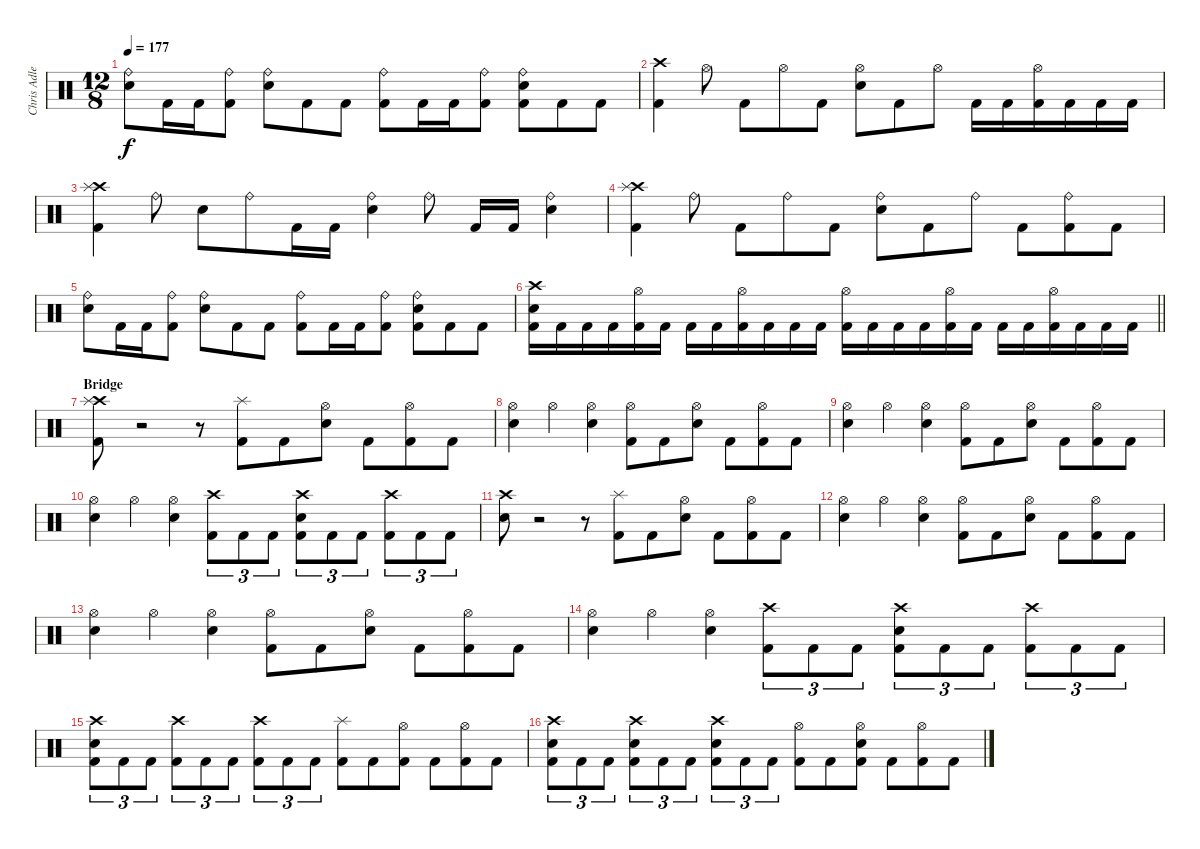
\track ("Chris Adler" "Chris Adle") {instrument percussion}
\staff {score}
\articulation defaults
\ts (12 8)
\tempo 177
\clef neutral
\ks c
("Ride (bell)" "Snare (hit) 2").8{dy f} "Kick (hit) 2".16 "Kick (hit) 2".16 ("Ride (bell)" "Kick (hit) 2").8 ("Ride (bell)" "Snare (hit) 2").8 "Kick (hit) 2".8 "Kick (hit) 2".8 ("Ride (bell)" "Kick (hit) 2").8 "Kick (hit) 2".16 "Kick (hit) 2".16 ("Ride (bell)" "Kick (hit) 2").8 ("Ride (bell)" "Snare (hit) 2" "Kick (hit) 2").8 "Kick (hit) 2".8 "Kick (hit) 2".8 |
("Crash high (hit)" "Kick (hit) 2").4 "Hi-Hat (open)".8 "Kick (hit) 2".8 "Hi-Hat (open)".8 "Kick (hit) 2".8 ("Hi-Hat (open)" "Snare (hit) 2").8 "Kick (hit) 2".8 "Hi-Hat (open)".8 "Kick (hit) 2".16 "Kick (hit) 2".16 ("Hi-Hat (open)" "Kick (hit) 2").16 "Kick (hit) 2".16 "Kick (hit) 2".16 "Kick (hit) 2".16 |
("Crash high (hit)" "Splash (hit)" "Kick (hit) 2").4 "Ride (bell)".8 "Snare (hit) 2".8 "Ride (bell)".8 "Kick (hit) 2".16 "Kick (hit) 2".16 ("Ride (bell)" "Snare (hit) 2").4 "Ride (bell)".8 "Kick (hit) 2".16 "Kick (hit) 2".16 ("Ride (bell)" "Snare (hit) 2").4 |
("Crash high (hit)" "Splash (hit)" "Kick (hit) 2").4 "Ride (bell)".8 "Kick (hit) 2".8 "Ride (bell)".8 "Kick (hit) 2".8 ("Ride (bell)" "Snare (hit) 2").8 "Kick (hit) 2".8 "Ride (bell)".8 "Kick (hit) 2".8 ("Ride (bell)" "Kick (hit) 2").8 "Kick (hit) 2".8 |
("Ride (bell)" "Snare (hit) 2").8 "Kick (hit) 2".16 "Kick (hit) 2".16 ("Ride (bell)" "Kick (hit) 2").8 ("Ride (bell)" "Snare (hit) 2").8 "Kick (hit) 2".8 "Kick (hit) 2".8 ("Ride (bell)" "Kick (hit) 2").8 "Kick (hit) 2".16 "Kick (hit) 2".16 ("Ride (bell)" "Kick (hit) 2").8 ("Ride (bell)" "Snare (hit) 2" "Kick (hit) 2").8 "Kick (hit) 2".8 "Kick (hit) 2".8 |
\barLineRight lightlight
("Crash high (hit)" "Snare (hit) 2" "Kick (hit) 2").16 "Kick (hit) 2".16 "Kick (hit) 2".16 "Kick (hit) 2".16 ("Hi-Hat (open)" "Kick (hit) 2").16 "Kick (hit) 2".16 "Kick (hit) 2".16 "Kick (hit) 2".16 ("Hi-Hat (open)" "Kick (hit) 2").16 "Kick (hit) 2".16 "Kick (hit) 2".16 "Kick (hit) 2".16 ("Hi-Hat (open)" "Kick (hit) 2").16 "Kick (hit) 2".16 "Kick (hit) 2".16 "Kick (hit) 2".16 ("Hi-Hat (open)" "Kick (hit) 2").16 "Kick (hit) 2".16 "Kick (hit) 2".16 "Kick (hit) 2".16 ("Hi-Hat (open)" "Kick (hit) 2").16 "Kick (hit) 2".16 "Kick (hit) 2".16 "Kick (hit) 2".16 |
\section ("" "Bridge")
("Kick (hit) 2" "Crash high (hit)" "Splash (hit)").8 r.2 r.8 ("Splash (hit)" "Kick (hit) 2").8 "Kick (hit) 2".8 ("Hi-Hat (open)" "Snare (hit) 2").8 "Kick (hit) 2".8 ("Hi-Hat (open)" "Kick (hit) 2").8 "Kick (hit) 2".8 |
("Hi-Hat (open)" "Snare (hit) 2").4 "Hi-Hat (open)".4 ("Hi-Hat (open)" "Snare (hit) 2").4 ("Hi-Hat (open)" "Kick (hit) 2").8 "Kick (hit) 2".8 ("Hi-Hat (open)" "Snare (hit) 2").8 "Kick (hit) 2".8 ("Hi-Hat (open)" "Kick (hit) 2").8 "Kick (hit) 2".8 |
("Hi-Hat (open)" "Snare (hit) 2").4 "Hi-Hat (open)".4 ("Hi-Hat (open)" "Snare (hit) 2").4 ("Hi-Hat (open)" "Kick (hit) 2").8 "Kick (hit) 2".8 ("Hi-Hat (open)" "Snare (hit) 2").8 "Kick (hit) 2".8 ("Hi-Hat (open)" "Kick (hit) 2").8 "Kick (hit) 2".8 |
("Hi-Hat (open)" "Snare (hit) 2").4 "Hi-Hat (open)".4 ("Hi-Hat (open)" "Snare (hit) 2").4 ("Crash high (hit)" "Kick (hit) 2").8{tu (3 2)} "Kick (hit) 2".8{tu (3 2)} "Kick (hit) 2".8{tu (3 2)} ("Snare (hit) 2" "Crash high (hit)" "Kick (hit) 2").8{tu (3 2)} "Kick (hit) 2".8{tu (3 2)} "Kick (hit) 2".8{tu (3 2)} ("Crash high (hit)" "Kick (hit) 2").8{tu (3 2)} "Kick (hit) 2".8{tu (3 2)} "Kick (hit) 2".8{tu (3 2)} |
("Crash high (hit)" "Snare (hit) 2").8 r.2 r.8 ("Splash (hit)" "Kick (hit) 2").8 "Kick (hit) 2".8 ("Hi-Hat (open)" "Snare (hit) 2").8 "Kick (hit) 2".8 ("Hi-Hat (open)" "Kick (hit) 2").8 "Kick (hit) 2".8 |
("Hi-Hat (open)" "Snare (hit) 2").4 "Hi-Hat (open)".4 ("Hi-Hat (open)" "Snare (hit) 2").4 ("Hi-Hat (open)" "Kick (hit) 2").8 "Kick (hit) 2".8 ("Hi-Hat (open)" "Snare (hit) 2").8 "Kick (hit) 2".8 ("Hi-Hat (open)" "Kick (hit) 2").8 "Kick (hit) 2".8 |
("Hi-Hat (open)" "Snare (hit) 2").4 "Hi-Hat (open)".4 ("Hi-Hat (open)" "Snare (hit) 2").4 ("Hi-Hat (open)" "Kick (hit) 2").8 "Kick (hit) 2".8 ("Hi-Hat (open)" "Snare (hit) 2").8 "Kick (hit) 2".8 ("Hi-Hat (open)" "Kick (hit) 2").8 "Kick (hit) 2".8 |
("Hi-Hat (open)" "Snare (hit) 2").4 "Hi-Hat (open)".4 ("Hi-Hat (open)" "Snare (hit) 2").4 ("Crash high (hit)" "Kick (hit) 2").8{tu (3 2)} "Kick (hit) 2".8{tu (3 2)} "Kick (hit) 2".8{tu (3 2)} ("Snare (hit) 2" "Crash high (hit)" "Kick (hit) 2").8{tu (3 2)} "Kick (hit) 2".8{tu (3 2)} "Kick (hit) 2".8{tu (3 2)} ("Crash high (hit)" "Kick (hit) 2").8{tu (3 2)} "Kick (hit) 2".8{tu (3 2)} "Kick (hit) 2".8{tu (3 2)} |
("Snare (hit) 2" "Crash high (hit)" "Kick (hit) 2").8{tu (3 2)} "Kick (hit) 2".8{tu (3 2)} "Kick (hit) 2".8{tu (3 2)} ("Crash high (hit)" "Kick (hit) 2").8{tu (3 2)} "Kick (hit) 2".8{tu (3 2)} "Kick (hit) 2".8{tu (3 2)} ("Crash high (hit)" "Kick (hit) 2").8{tu (3 2)} "Kick (hit) 2".8{tu (3 2)} "Kick (hit) 2".8{tu (3 2)} ("Splash (hit)" "Kick (hit) 2").8 "Kick (hit) 2".8 ("Hi-Hat (open)" "Kick (hit) 2").8 "Kick (hit) 2".8 ("Hi-Hat (open)" "Kick (hit) 2").8 "Kick (hit) 2".8 |
("Snare (hit) 2" "Crash high (hit)" "Kick (hit) 2").8{tu (3 2)} "Kick (hit) 2".8{tu (3 2)} "Kick (hit) 2".8{tu (3 2)} ("Snare (hit) 2" "Crash high (hit)" "Kick (hit) 2").8{tu (3 2)} "Kick (hit) 2".8{tu (3 2)} "Kick (hit) 2".8{tu (3 2)} ("Snare (hit) 2" "Crash high (hit)" "Kick (hit) 2").8{tu (3 2)} "Kick (hit) 2".8{tu (3 2)} "Kick (hit) 2".8{tu (3 2)} ("Hi-Hat (open)" "Kick (hit) 2").8 "Kick (hit) 2".8 ("Snare (hit) 2" "Hi-Hat (open)" "Kick (hit) 2").8 "Kick (hit) 2".8 ("Hi-Hat (open)" "Kick (hit) 2").8 "Kick (hit) 2".8
